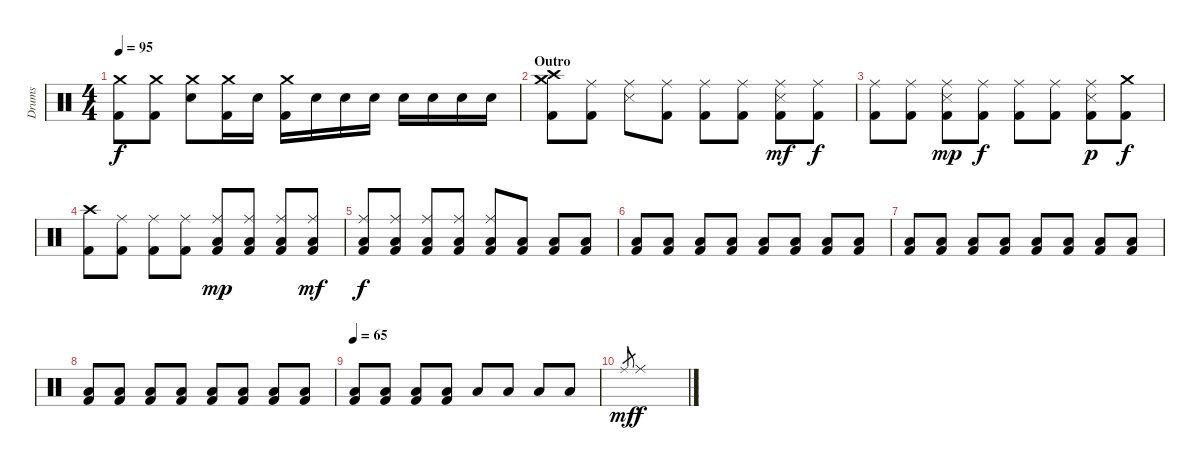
\track ("Drums" "Drums") {instrument percussion}
\staff {score}
\articulation defaults
\ts (4 4)
\tempo 95
\clef neutral
\ks c
("Crash medium (hit)" "Kick (hit) 2").8{dy f} ("Crash medium (hit)" "Kick (hit) 2").8 ("Crash medium (hit)" "Snare (hit) 2").8 ("Crash medium (hit)" "Kick (hit) 2").16 "Snare (hit) 2".16 ("Crash medium (hit)" "Kick (hit) 2").16 "Snare (hit) 2".16 "Snare (hit) 2".16 "Snare (hit) 2".16 "Snare (hit) 2".16 "Snare (hit) 2".16 "Snare (hit) 2".16 "Snare (hit) 2".16 |
\section ("" "Outro")
("Crash high (hit)" "Crash medium (hit)" "Kick (hit) 2").8 ("Ride (middle)" "Kick (hit) 2").8 ("Ride (middle)" "Snare (side stick) 3").8 ("Ride (middle)" "Kick (hit) 2").8 ("Ride (middle)" "Kick (hit) 2").8 ("Ride (middle)" "Kick (hit) 2").8 ("Ride (middle)" "Snare (side stick) 3" "Kick (hit) 2").8{dy mf} ("Ride (middle)" "Kick (hit) 2").8{dy f} |
("Ride (middle)" "Kick (hit) 2").8 ("Ride (middle)" "Kick (hit) 2").8 ("Ride (middle)" "Snare (side stick) 3" "Kick (hit) 2").8{dy mp} ("Ride (middle)" "Kick (hit) 2").8{dy f} ("Ride (middle)" "Kick (hit) 2").8 ("Ride (middle)" "Kick (hit) 2").8 ("Ride (middle)" "Snare (side stick) 3" "Kick (hit) 2").8{dy p} ("Crash medium (hit)" "Kick (hit) 2").8{dy f} |
("Crash high (hit)" "Kick (hit) 2").8 ("Ride (middle)" "Kick (hit) 2").8 ("Ride (middle)" "Kick (hit) 2").8 ("Ride (middle)" "Kick (hit) 2").8 ("Ride (middle)" "Low Tom (hit)" "Kick (hit) 2").8{dy mp} ("Ride (middle)" "Low Tom (hit)" "Kick (hit) 2").8 ("Ride (middle)" "Low Tom (hit)" "Kick (hit) 2").8 ("Ride (middle)" "Low Tom (hit)" "Kick (hit) 2").8{dy mf} |
("Ride (middle)" "Low Tom (hit)" "Kick (hit) 2").8{dy f} ("Ride (middle)" "Low Tom (hit)" "Kick (hit) 2").8 ("Ride (middle)" "Low Tom (hit)" "Kick (hit) 2").8 ("Ride (middle)" "Low Tom (hit)" "Kick (hit) 2").8 ("Ride (middle)" "Low Tom (hit)" "Kick (hit) 2").8 ("Low Tom (hit)" "Kick (hit) 2").8 ("Low Tom (hit)" "Kick (hit) 2").8 ("Low Tom (hit)" "Kick (hit) 2").8 |
("Low Tom (hit)" "Kick (hit) 2").8 ("Low Tom (hit)" "Kick (hit) 2").8 ("Low Tom (hit)" "Kick (hit) 2").8 ("Low Tom (hit)" "Kick (hit) 2").8 ("Low Tom (hit)" "Kick (hit) 2").8 ("Low Tom (hit)" "Kick (hit) 2").8 ("Low Tom (hit)" "Kick (hit) 2").8 ("Low Tom (hit)" "Kick (hit) 2").8 |
("Low Tom (hit)" "Kick (hit) 2").8 ("Low Tom (hit)" "Kick (hit) 2").8 ("Low Tom (hit)" "Kick (hit) 2").8 ("Low Tom (hit)" "Kick (hit) 2").8 ("Low Tom (hit)" "Kick (hit) 2").8 ("Low Tom (hit)" "Kick (hit) 2").8 ("Low Tom (hit)" "Kick (hit) 2").8 ("Low Tom (hit)" "Kick (hit) 2").8 |
("Low Tom (hit)" "Kick (hit) 2").8 ("Low Tom (hit)" "Kick (hit) 2").8 ("Low Tom (hit)" "Kick (hit) 2").8 ("Low Tom (hit)" "Kick (hit) 2").8 ("Low Tom (hit)" "Kick (hit) 2").8 ("Low Tom (hit)" "Kick (hit) 2").8 ("Low Tom (hit)" "Kick (hit) 2").8 ("Low Tom (hit)" "Kick (hit) 2").8 |
\tempo 65
("Low Tom (hit)" "Kick (hit) 2").8 ("Low Tom (hit)" "Kick (hit) 2").8 ("Low Tom (hit)" "Kick (hit) 2").8 ("Low Tom (hit)" "Kick (hit) 2").8 "Low Floor Tom (hit)".8 "Low Floor Tom (hit)".8 "Low Floor Tom (hit)".8 "Low Floor Tom (hit)".8 |
"Ride (middle)".8{gr dy mf} "Ride (middle)".1{dy f}
